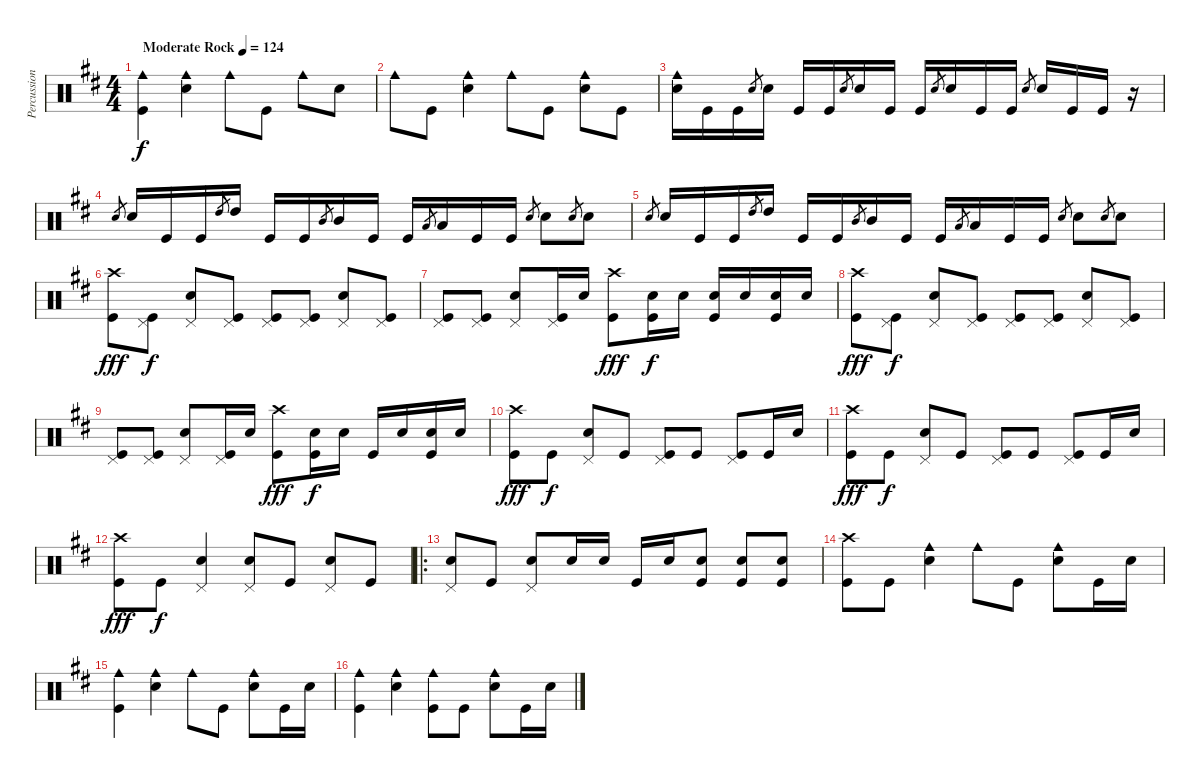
\track ("Percussion" "Percussion") {instrument percussion}
\staff {score}
\articulation defaults
\ts (4 4)
\tempo (124 "Moderate Rock")
\clef neutral
\ks d
("Cowbell medium (hit)" "Kick (hit)").4{dy f} ("Cowbell medium (hit)" "Snare (hit) 2").4 "Cowbell medium (hit)".8 "Kick (hit)".8 "Cowbell medium (hit)".8 "Snare (hit) 2".8 |
"Cowbell medium (hit)".8 "Kick (hit)".8 ("Cowbell medium (hit)" "Snare (hit) 2").4 "Cowbell medium (hit)".8 "Kick (hit)".8 ("Cowbell medium (hit)" "Snare (hit) 2").8 "Kick (hit)".8 |
("Cowbell medium (hit)" "Snare (hit) 2").16 "Kick (hit)".16 "Kick (hit)".16 "Snare (hit) 2".8{gr} "Snare (hit) 2".16 "Kick (hit)".16 "Kick (hit)".16 "Snare (hit) 2".8{gr} "Snare (hit) 2".16 "Kick (hit)".16 "Kick (hit)".16 "Snare (hit) 2".8{gr} "Snare (hit) 2".16 "Kick (hit)".16 "Kick (hit)".16 "Snare (hit) 2".8{gr} "Snare (hit) 2".16 "Kick (hit)".16 "Kick (hit)".16 r.16 |
"Snare (hit) 2".8{gr} "Snare (hit) 2".16 "Kick (hit)".16 "Kick (hit)".16 "High Tom (hit)".8{gr} "High Tom (hit)".16 "Kick (hit)".16 "Kick (hit)".16 "Mid Tom (hit)".8{gr} "Mid Tom (hit)".16 "Kick (hit)".16 "Kick (hit)".16 "Low Tom (hit)".8{gr} "Low Tom (hit)".16 "Kick (hit)".16 "Kick (hit)".16 "Snare (hit) 2".8{gr} "Snare (hit) 2".8 "Snare (hit) 2".8{gr} "Snare (hit) 2".8 |
"Snare (hit) 2".8{gr} "Snare (hit) 2".16 "Kick (hit)".16 "Kick (hit)".16 "High Tom (hit)".8{gr} "High Tom (hit)".16 "Kick (hit)".16 "Kick (hit)".16 "Mid Tom (hit)".8{gr} "Mid Tom (hit)".16 "Kick (hit)".16 "Kick (hit)".16 "Low Tom (hit)".8{gr} "Low Tom (hit)".16 "Kick (hit)".16 "Kick (hit)".16 "Snare (hit) 2".8{gr} "Snare (hit) 2".8 "Snare (hit) 2".8{gr} "Snare (hit) 2".8 |
("Crash high (hit)" "Kick (hit)").8{dy fff} ("Pedal Hi-Hat (hit)" "Kick (hit)").8{dy f} ("Pedal Hi-Hat (hit)" "Snare (hit) 2").8 ("Pedal Hi-Hat (hit)" "Kick (hit)").8 ("Pedal Hi-Hat (hit)" "Kick (hit)").8 ("Pedal Hi-Hat (hit)" "Kick (hit)").8 ("Pedal Hi-Hat (hit)" "Snare (hit) 2").8 ("Pedal Hi-Hat (hit)" "Kick (hit)").8 |
("Pedal Hi-Hat (hit)" "Kick (hit)").8 ("Pedal Hi-Hat (hit)" "Kick (hit)").8 ("Pedal Hi-Hat (hit)" "Snare (hit) 2").8 ("Pedal Hi-Hat (hit)" "Kick (hit)").16 "Snare (hit) 2".16 ("Crash high (hit)" "Kick (hit)").8{dy fff} ("Snare (hit) 2" "Kick (hit)").16{dy f} "Snare (hit) 2".16 ("Snare (hit) 2" "Kick (hit)").16 "Snare (hit) 2".16 ("Snare (hit) 2" "Kick (hit)").16 "Snare (hit) 2".16 |
("Crash high (hit)" "Kick (hit)").8{dy fff} ("Pedal Hi-Hat (hit)" "Kick (hit)").8{dy f} ("Pedal Hi-Hat (hit)" "Snare (hit) 2").8 ("Pedal Hi-Hat (hit)" "Kick (hit)").8 ("Pedal Hi-Hat (hit)" "Kick (hit)").8 ("Pedal Hi-Hat (hit)" "Kick (hit)").8 ("Pedal Hi-Hat (hit)" "Snare (hit) 2").8 ("Pedal Hi-Hat (hit)" "Kick (hit)").8 |
("Pedal Hi-Hat (hit)" "Kick (hit)").8 ("Pedal Hi-Hat (hit)" "Kick (hit)").8 ("Pedal Hi-Hat (hit)" "Snare (hit) 2").8 ("Pedal Hi-Hat (hit)" "Kick (hit)").16 "Snare (hit) 2".16 ("Crash high (hit)" "Kick (hit)").8{dy fff} ("Snare (hit) 2" "Kick (hit)").16{dy f} "Snare (hit) 2".16 "Kick (hit)".16 "Snare (hit) 2".16 ("Snare (hit) 2" "Kick (hit)").16 "Snare (hit) 2".16 |
("Crash high (hit)" "Kick (hit)").8{dy fff} "Kick (hit)".8{dy f} ("Pedal Hi-Hat (hit)" "Snare (hit) 2").8 "Kick (hit)".8 ("Pedal Hi-Hat (hit)" "Kick (hit)").8 "Kick (hit)".8 ("Pedal Hi-Hat (hit)" "Kick (hit)").8 "Kick (hit)".16 "Snare (hit) 2".16 |
("Crash high (hit)" "Kick (hit)").8{dy fff} "Kick (hit)".8{dy f} ("Pedal Hi-Hat (hit)" "Snare (hit) 2").8 "Kick (hit)".8 ("Pedal Hi-Hat (hit)" "Kick (hit)").8 "Kick (hit)".8 ("Pedal Hi-Hat (hit)" "Kick (hit)").8 "Kick (hit)".16 "Snare (hit) 2".16 |
("Crash high (hit)" "Kick (hit)").8{dy fff} "Kick (hit)".8{dy f} ("Pedal Hi-Hat (hit)" "Snare (hit) 2").4 ("Pedal Hi-Hat (hit)" "Snare (hit) 2").8 "Kick (hit)".8 ("Pedal Hi-Hat (hit)" "Snare (hit) 2").8 "Kick (hit)".8 |
\ro
("Pedal Hi-Hat (hit)" "Snare (hit) 2").8 "Kick (hit)".8 ("Pedal Hi-Hat (hit)" "Snare (hit) 2").8 "Snare (hit) 2".16 "Snare (hit) 2".16 "Kick (hit)".16 "Snare (hit) 2".16 ("Snare (hit) 2" "Kick (hit)").8 ("Snare (hit) 2" "Kick (hit)").8 ("Snare (hit) 2" "Kick (hit)").8 |
("Crash high (hit)" "Kick (hit)").8 "Kick (hit)".8 ("Cowbell medium (hit)" "Snare (hit) 2").4 "Cowbell medium (hit)".8 "Kick (hit)".8 ("Cowbell medium (hit)" "Snare (hit) 2").8 "Kick (hit)".16 "Snare (hit) 2".16 |
("Cowbell medium (hit)" "Kick (hit)").4 ("Cowbell medium (hit)" "Snare (hit) 2").4 "Cowbell medium (hit)".8 "Kick (hit)".8 ("Cowbell medium (hit)" "Snare (hit) 2").8 "Kick (hit)".16 "Snare (hit) 2".16 |
("Cowbell medium (hit)" "Kick (hit)").4 ("Cowbell medium (hit)" "Snare (hit) 2").4 ("Cowbell medium (hit)" "Kick (hit)").8 "Kick (hit)".8 ("Cowbell medium (hit)" "Snare (hit) 2").8 "Kick (hit)".16 "Snare (hit) 2".16
